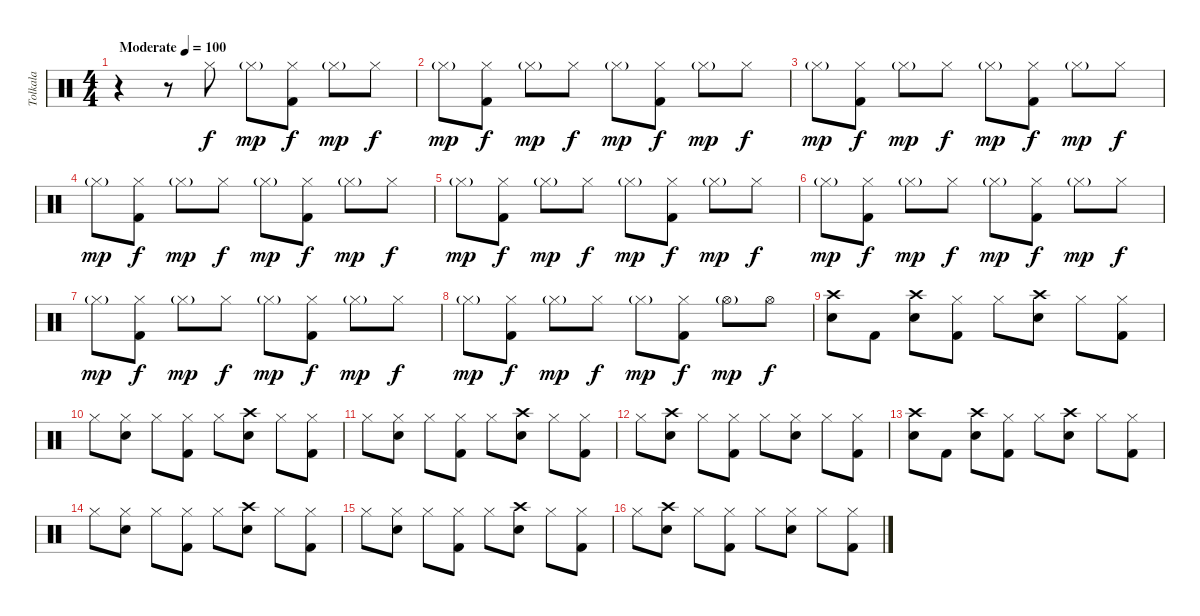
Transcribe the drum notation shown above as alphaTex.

\track ("Tolkala" "Tolkala") {instrument percussion}
\staff {score}
\articulation defaults
\ts (4 4)
\tempo (100 "Moderate")
\clef neutral
\ks c
r.4{dy f} r.8 "Hi-Hat (closed)".8 "Hi-Hat (closed)"{g}.8{dy mp} ("Hi-Hat (closed)" "Kick (hit) 2").8{dy f} "Hi-Hat (closed)"{g}.8{dy mp} "Hi-Hat (closed)".8{dy f} |
"Hi-Hat (closed)"{g}.8{dy mp} ("Hi-Hat (closed)" "Kick (hit) 2").8{dy f} "Hi-Hat (closed)"{g}.8{dy mp} "Hi-Hat (closed)".8{dy f} "Hi-Hat (closed)"{g}.8{dy mp} ("Hi-Hat (closed)" "Kick (hit) 2").8{dy f} "Hi-Hat (closed)"{g}.8{dy mp} "Hi-Hat (closed)".8{dy f} |
"Hi-Hat (closed)"{g}.8{dy mp} ("Hi-Hat (closed)" "Kick (hit) 2").8{dy f} "Hi-Hat (closed)"{g}.8{dy mp} "Hi-Hat (closed)".8{dy f} "Hi-Hat (closed)"{g}.8{dy mp} ("Hi-Hat (closed)" "Kick (hit) 2").8{dy f} "Hi-Hat (closed)"{g}.8{dy mp} "Hi-Hat (closed)".8{dy f} |
"Hi-Hat (closed)"{g}.8{dy mp} ("Hi-Hat (closed)" "Kick (hit) 2").8{dy f} "Hi-Hat (closed)"{g}.8{dy mp} "Hi-Hat (closed)".8{dy f} "Hi-Hat (closed)"{g}.8{dy mp} ("Hi-Hat (closed)" "Kick (hit) 2").8{dy f} "Hi-Hat (closed)"{g}.8{dy mp} "Hi-Hat (closed)".8{dy f} |
"Hi-Hat (closed)"{g}.8{dy mp} ("Hi-Hat (closed)" "Kick (hit) 2").8{dy f} "Hi-Hat (closed)"{g}.8{dy mp} "Hi-Hat (closed)".8{dy f} "Hi-Hat (closed)"{g}.8{dy mp} ("Hi-Hat (closed)" "Kick (hit) 2").8{dy f} "Hi-Hat (closed)"{g}.8{dy mp} "Hi-Hat (closed)".8{dy f} |
"Hi-Hat (closed)"{g}.8{dy mp} ("Hi-Hat (closed)" "Kick (hit) 2").8{dy f} "Hi-Hat (closed)"{g}.8{dy mp} "Hi-Hat (closed)".8{dy f} "Hi-Hat (closed)"{g}.8{dy mp} ("Hi-Hat (closed)" "Kick (hit) 2").8{dy f} "Hi-Hat (closed)"{g}.8{dy mp} "Hi-Hat (closed)".8{dy f} |
"Hi-Hat (closed)"{g}.8{dy mp} ("Hi-Hat (closed)" "Kick (hit) 2").8{dy f} "Hi-Hat (closed)"{g}.8{dy mp} "Hi-Hat (closed)".8{dy f} "Hi-Hat (closed)"{g}.8{dy mp} ("Hi-Hat (closed)" "Kick (hit) 2").8{dy f} "Hi-Hat (closed)"{g}.8{dy mp} "Hi-Hat (closed)".8{dy f} |
"Hi-Hat (closed)"{g}.8{dy mp} ("Hi-Hat (closed)" "Kick (hit) 2").8{dy f} "Hi-Hat (closed)"{g}.8{dy mp} "Hi-Hat (closed)".8{dy f} "Hi-Hat (closed)"{g}.8{dy mp} ("Hi-Hat (closed)" "Kick (hit) 2").8{dy f} "Hi-Hat (open)"{g}.8{dy mp} "Hi-Hat (open)".8{dy f} |
("Crash high (hit)" "Snare (hit) 2").8 "Kick (hit) 2".8 ("Crash high (hit)" "Snare (hit) 2").8 ("Hi-Hat (closed)" "Kick (hit) 2").8 "Hi-Hat (closed)".8 ("Crash high (hit)" "Snare (hit) 2").8 "Hi-Hat (closed)".8 ("Hi-Hat (closed)" "Kick (hit) 2").8 |
"Hi-Hat (closed)".8 ("Hi-Hat (closed)" "Snare (hit) 2").8 "Hi-Hat (closed)".8 ("Hi-Hat (closed)" "Kick (hit) 2").8 "Hi-Hat (closed)".8 ("Crash high (hit)" "Snare (hit) 2").8 "Hi-Hat (closed)".8 ("Hi-Hat (closed)" "Kick (hit) 2").8 |
"Hi-Hat (closed)".8 ("Hi-Hat (closed)" "Snare (hit) 2").8 "Hi-Hat (closed)".8 ("Hi-Hat (closed)" "Kick (hit) 2").8 "Hi-Hat (closed)".8 ("Crash high (hit)" "Snare (hit) 2").8 "Hi-Hat (closed)".8 ("Hi-Hat (closed)" "Kick (hit) 2").8 |
"Hi-Hat (closed)".8 ("Crash high (hit)" "Snare (hit) 2").8 "Hi-Hat (closed)".8 ("Hi-Hat (closed)" "Kick (hit) 2").8 "Hi-Hat (closed)".8 ("Hi-Hat (closed)" "Snare (hit) 2").8 "Hi-Hat (closed)".8 ("Hi-Hat (closed)" "Kick (hit) 2").8 |
("Crash high (hit)" "Snare (hit) 2").8 "Kick (hit) 2".8 ("Crash high (hit)" "Snare (hit) 2").8 ("Hi-Hat (closed)" "Kick (hit) 2").8 "Hi-Hat (closed)".8 ("Crash high (hit)" "Snare (hit) 2").8 "Hi-Hat (closed)".8 ("Hi-Hat (closed)" "Kick (hit) 2").8 |
"Hi-Hat (closed)".8 ("Hi-Hat (closed)" "Snare (hit) 2").8 "Hi-Hat (closed)".8 ("Hi-Hat (closed)" "Kick (hit) 2").8 "Hi-Hat (closed)".8 ("Crash high (hit)" "Snare (hit) 2").8 "Hi-Hat (closed)".8 ("Hi-Hat (closed)" "Kick (hit) 2").8 |
"Hi-Hat (closed)".8 ("Hi-Hat (closed)" "Snare (hit) 2").8 "Hi-Hat (closed)".8 ("Hi-Hat (closed)" "Kick (hit) 2").8 "Hi-Hat (closed)".8 ("Crash high (hit)" "Snare (hit) 2").8 "Hi-Hat (closed)".8 ("Hi-Hat (closed)" "Kick (hit) 2").8 |
"Hi-Hat (closed)".8 ("Crash high (hit)" "Snare (hit) 2").8 "Hi-Hat (closed)".8 ("Hi-Hat (closed)" "Kick (hit) 2").8 "Hi-Hat (closed)".8 ("Hi-Hat (closed)" "Snare (hit) 2").8 "Hi-Hat (closed)".8 ("Hi-Hat (closed)" "Kick (hit) 2").8
